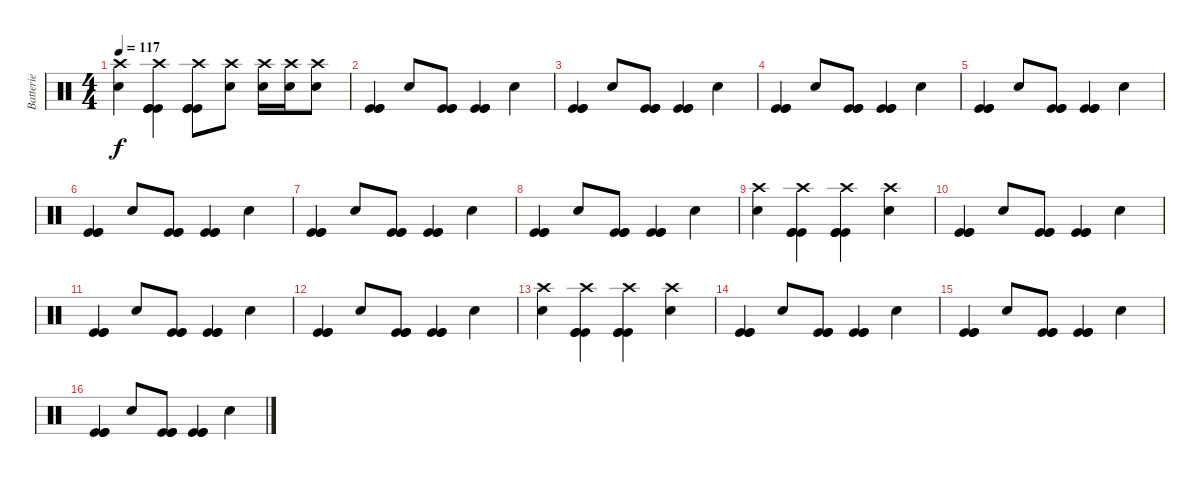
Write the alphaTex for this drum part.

\track ("Batterie" "Batterie") {instrument percussion}
\staff {score}
\articulation defaults
\ts (4 4)
\tempo 117
\clef neutral
\ks c
("Electric Snare (hit)" "Crash high (hit)").4{dy f} ("Kick (hit)" "Kick (hit)" "Kick (hit)" "Crash high (hit)").4 ("Kick (hit)" "Kick (hit)" "Kick (hit)" "Crash high (hit)").8 ("Electric Snare (hit)" "Crash high (hit)").8 ("Electric Snare (hit)" "Crash high (hit)").16 ("Electric Snare (hit)" "Crash high (hit)").16 ("Electric Snare (hit)" "Crash high (hit)").8 |
("Kick (hit)" "Kick (hit)" "Kick (hit)").4 "Electric Snare (hit)".8 ("Kick (hit)" "Kick (hit)" "Kick (hit)").8 ("Kick (hit)" "Kick (hit)" "Kick (hit)").4 "Electric Snare (hit)".4 |
("Kick (hit)" "Kick (hit)" "Kick (hit)").4 "Electric Snare (hit)".8 ("Kick (hit)" "Kick (hit)" "Kick (hit)").8 ("Kick (hit)" "Kick (hit)" "Kick (hit)").4 "Electric Snare (hit)".4 |
("Kick (hit)" "Kick (hit)" "Kick (hit)").4 "Electric Snare (hit)".8 ("Kick (hit)" "Kick (hit)" "Kick (hit)").8 ("Kick (hit)" "Kick (hit)" "Kick (hit)").4 "Electric Snare (hit)".4 |
("Kick (hit)" "Kick (hit)" "Kick (hit)").4 "Electric Snare (hit)".8 ("Kick (hit)" "Kick (hit)" "Kick (hit)").8 ("Kick (hit)" "Kick (hit)" "Kick (hit)").4 "Electric Snare (hit)".4 |
("Kick (hit)" "Kick (hit)" "Kick (hit)").4 "Electric Snare (hit)".8 ("Kick (hit)" "Kick (hit)" "Kick (hit)").8 ("Kick (hit)" "Kick (hit)" "Kick (hit)").4 "Electric Snare (hit)".4 |
("Kick (hit)" "Kick (hit)" "Kick (hit)").4 "Electric Snare (hit)".8 ("Kick (hit)" "Kick (hit)" "Kick (hit)").8 ("Kick (hit)" "Kick (hit)" "Kick (hit)").4 "Electric Snare (hit)".4 |
("Kick (hit)" "Kick (hit)" "Kick (hit)").4 "Electric Snare (hit)".8 ("Kick (hit)" "Kick (hit)" "Kick (hit)").8 ("Kick (hit)" "Kick (hit)" "Kick (hit)").4 "Electric Snare (hit)".4 |
("Electric Snare (hit)" "Crash high (hit)").4 ("Kick (hit)" "Kick (hit)" "Kick (hit)" "Crash high (hit)").4 ("Kick (hit)" "Kick (hit)" "Kick (hit)" "Crash high (hit)").4 ("Electric Snare (hit)" "Crash high (hit)").4 |
("Kick (hit)" "Kick (hit)" "Kick (hit)").4 "Electric Snare (hit)".8 ("Kick (hit)" "Kick (hit)" "Kick (hit)").8 ("Kick (hit)" "Kick (hit)" "Kick (hit)").4 "Electric Snare (hit)".4 |
("Kick (hit)" "Kick (hit)" "Kick (hit)").4 "Electric Snare (hit)".8 ("Kick (hit)" "Kick (hit)" "Kick (hit)").8 ("Kick (hit)" "Kick (hit)" "Kick (hit)").4 "Electric Snare (hit)".4 |
("Kick (hit)" "Kick (hit)" "Kick (hit)").4 "Electric Snare (hit)".8 ("Kick (hit)" "Kick (hit)" "Kick (hit)").8 ("Kick (hit)" "Kick (hit)" "Kick (hit)").4 "Electric Snare (hit)".4 |
("Electric Snare (hit)" "Crash high (hit)").4 ("Kick (hit)" "Kick (hit)" "Kick (hit)" "Crash high (hit)").4 ("Kick (hit)" "Kick (hit)" "Kick (hit)" "Crash high (hit)").4 ("Electric Snare (hit)" "Crash high (hit)").4 |
("Kick (hit)" "Kick (hit)" "Kick (hit)").4 "Electric Snare (hit)".8 ("Kick (hit)" "Kick (hit)" "Kick (hit)").8 ("Kick (hit)" "Kick (hit)" "Kick (hit)").4 "Electric Snare (hit)".4 |
("Kick (hit)" "Kick (hit)" "Kick (hit)").4 "Electric Snare (hit)".8 ("Kick (hit)" "Kick (hit)" "Kick (hit)").8 ("Kick (hit)" "Kick (hit)" "Kick (hit)").4 "Electric Snare (hit)".4 |
("Kick (hit)" "Kick (hit)" "Kick (hit)").4 "Electric Snare (hit)".8 ("Kick (hit)" "Kick (hit)" "Kick (hit)").8 ("Kick (hit)" "Kick (hit)" "Kick (hit)").4 "Electric Snare (hit)".4
